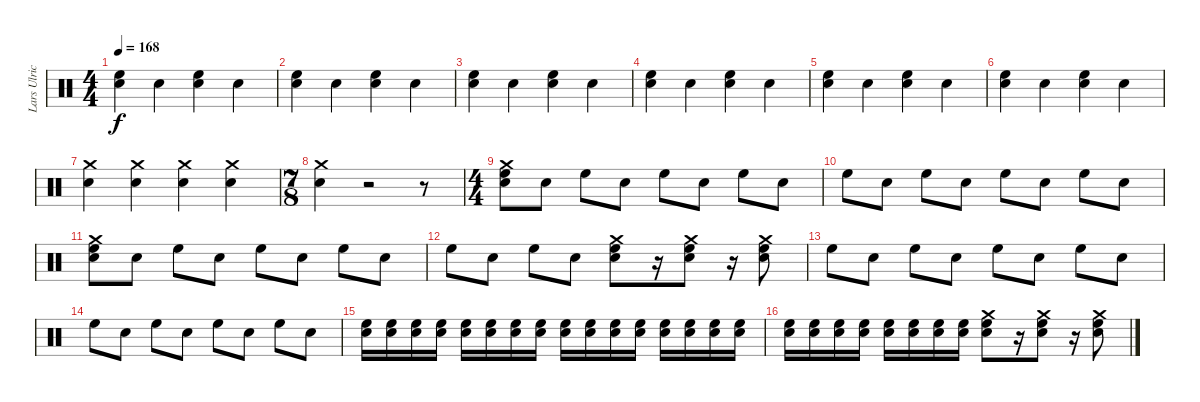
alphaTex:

\track ("Lars Ulrich (Drums)" "Lars Ulric") {instrument percussion}
\staff {score}
\articulation defaults
\ts (4 4)
\tempo 168
\clef neutral
\ks c
("Electric Snare (hit)" "High Floor Tom (hit)").4{dy f} "Electric Snare (hit)".4 ("Electric Snare (hit)" "High Floor Tom (hit)").4 "Electric Snare (hit)".4 |
("Electric Snare (hit)" "High Floor Tom (hit)").4 "Electric Snare (hit)".4 ("Electric Snare (hit)" "High Floor Tom (hit)").4 "Electric Snare (hit)".4 |
("Electric Snare (hit)" "High Floor Tom (hit)").4 "Electric Snare (hit)".4 ("Electric Snare (hit)" "High Floor Tom (hit)").4 "Electric Snare (hit)".4 |
("Electric Snare (hit)" "High Floor Tom (hit)").4 "Electric Snare (hit)".4 ("Electric Snare (hit)" "High Floor Tom (hit)").4 "Electric Snare (hit)".4 |
("Electric Snare (hit)" "High Floor Tom (hit)").4 "Electric Snare (hit)".4 ("Electric Snare (hit)" "High Floor Tom (hit)").4 "Electric Snare (hit)".4 |
("Electric Snare (hit)" "High Floor Tom (hit)").4 "Electric Snare (hit)".4 ("Electric Snare (hit)" "High Floor Tom (hit)").4 "Electric Snare (hit)".4 |
("Electric Snare (hit)" "Crash medium (hit)").4 ("Electric Snare (hit)" "Crash medium (hit)").4 ("Electric Snare (hit)" "Crash medium (hit)").4 ("Electric Snare (hit)" "Crash medium (hit)").4 |
\ts (7 8)
("Electric Snare (hit)" "Crash medium (hit)").4 r.2 r.8 |
\ts (4 4)
("Crash medium (hit)" "Electric Snare (hit)" "High Floor Tom (hit)").8 "Electric Snare (hit)".8 "High Floor Tom (hit)".8 "Electric Snare (hit)".8 "High Floor Tom (hit)".8 "Electric Snare (hit)".8 "High Floor Tom (hit)".8 "Electric Snare (hit)".8 |
"High Floor Tom (hit)".8 "Electric Snare (hit)".8 "High Floor Tom (hit)".8 "Electric Snare (hit)".8 "High Floor Tom (hit)".8 "Electric Snare (hit)".8 "High Floor Tom (hit)".8 "Electric Snare (hit)".8 |
("High Floor Tom (hit)" "Electric Snare (hit)" "Crash medium (hit)").8 "Electric Snare (hit)".8 "High Floor Tom (hit)".8 "Electric Snare (hit)".8 "High Floor Tom (hit)".8 "Electric Snare (hit)".8 "High Floor Tom (hit)".8 "Electric Snare (hit)".8 |
"High Floor Tom (hit)".8 "Electric Snare (hit)".8 "High Floor Tom (hit)".8 "Electric Snare (hit)".8 ("Electric Snare (hit)" "High Floor Tom (hit)" "Crash medium (hit)").8 r.16 ("Electric Snare (hit)" "High Floor Tom (hit)" "Crash medium (hit)").8 r.16 ("Electric Snare (hit)" "High Floor Tom (hit)" "Crash medium (hit)").8 |
"High Floor Tom (hit)".8 "Electric Snare (hit)".8 "High Floor Tom (hit)".8 "Electric Snare (hit)".8 "High Floor Tom (hit)".8 "Electric Snare (hit)".8 "High Floor Tom (hit)".8 "Electric Snare (hit)".8 |
"High Floor Tom (hit)".8 "Electric Snare (hit)".8 "High Floor Tom (hit)".8 "Electric Snare (hit)".8 "High Floor Tom (hit)".8 "Electric Snare (hit)".8 "High Floor Tom (hit)".8 "Electric Snare (hit)".8 |
("Electric Snare (hit)" "High Floor Tom (hit)").16 ("Electric Snare (hit)" "High Floor Tom (hit)").16 ("Electric Snare (hit)" "High Floor Tom (hit)").16 ("Electric Snare (hit)" "High Floor Tom (hit)").16 ("Electric Snare (hit)" "High Floor Tom (hit)").16 ("Electric Snare (hit)" "High Floor Tom (hit)").16 ("Electric Snare (hit)" "High Floor Tom (hit)").16 ("Electric Snare (hit)" "High Floor Tom (hit)").16 ("Electric Snare (hit)" "High Floor Tom (hit)").16 ("Electric Snare (hit)" "High Floor Tom (hit)").16 ("Electric Snare (hit)" "High Floor Tom (hit)").16 ("Electric Snare (hit)" "High Floor Tom (hit)").16 ("Electric Snare (hit)" "High Floor Tom (hit)").16 ("Electric Snare (hit)" "High Floor Tom (hit)").16 ("Electric Snare (hit)" "High Floor Tom (hit)").16 ("Electric Snare (hit)" "High Floor Tom (hit)").16 |
("Electric Snare (hit)" "High Floor Tom (hit)").16 ("Electric Snare (hit)" "High Floor Tom (hit)").16 ("Electric Snare (hit)" "High Floor Tom (hit)").16 ("Electric Snare (hit)" "High Floor Tom (hit)").16 ("Electric Snare (hit)" "High Floor Tom (hit)").16 ("Electric Snare (hit)" "High Floor Tom (hit)").16 ("Electric Snare (hit)" "High Floor Tom (hit)").16 ("Electric Snare (hit)" "High Floor Tom (hit)").16 ("Electric Snare (hit)" "High Floor Tom (hit)" "Crash medium (hit)").8 r.16 ("Electric Snare (hit)" "High Floor Tom (hit)" "Crash medium (hit)").8 r.16 ("Electric Snare (hit)" "High Floor Tom (hit)" "Crash medium (hit)").8
